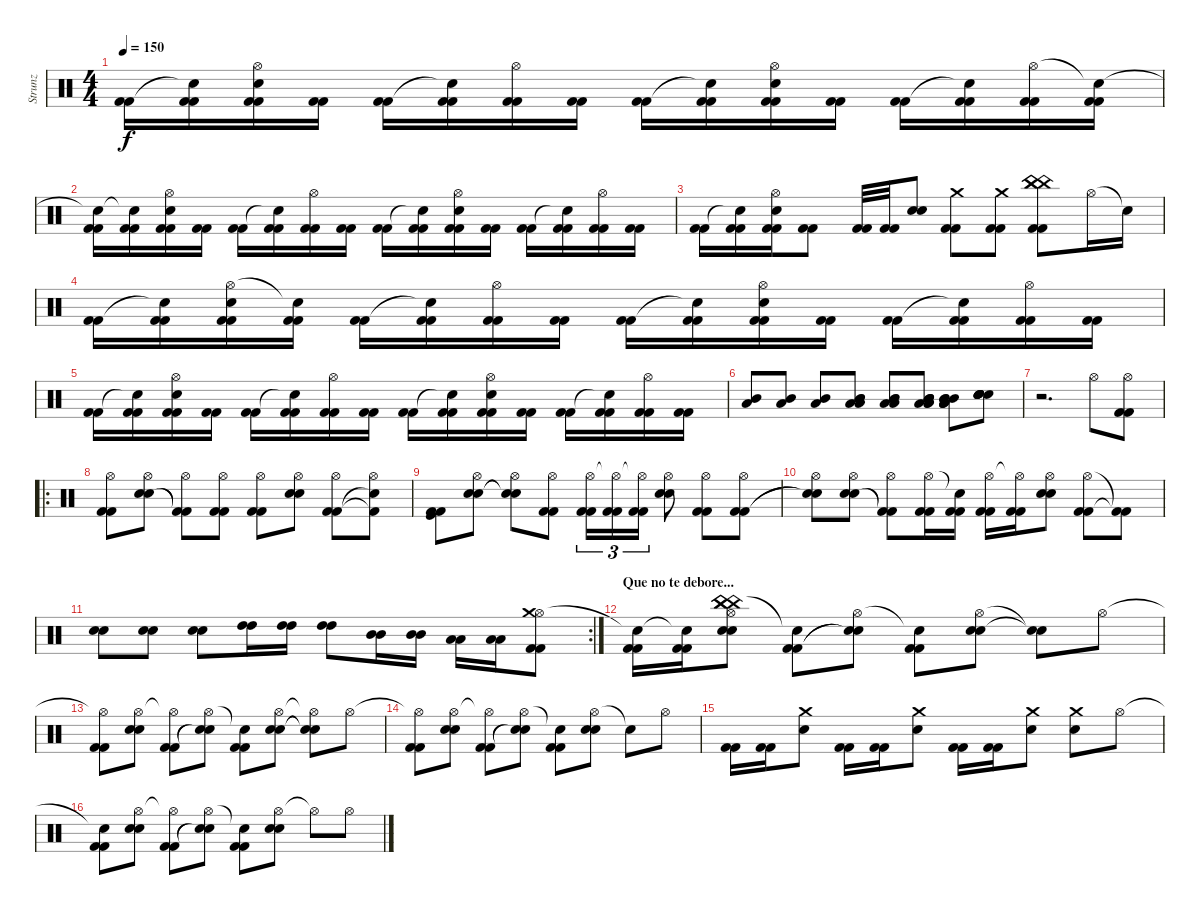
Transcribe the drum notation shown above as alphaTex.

\track ("Strunz" "Strunz") {instrument percussion}
\staff {score}
\articulation defaults
\ts (4 4)
\tempo 150
\clef neutral
\ks c
("Kick (hit) 2" "Kick (hit) 2").16{dy f} ("Snare (hit)"{t} "Kick (hit) 2" "Kick (hit) 2").16 ("Hi-Hat (open)" "Snare (hit) 2" "Kick (hit) 2" "Kick (hit) 2").16 ("Kick (hit) 2" "Kick (hit) 2").16 ("Kick (hit) 2" "Kick (hit) 2").16 ("Snare (hit)"{t} "Kick (hit) 2" "Kick (hit) 2").16 ("Hi-Hat (open)" "Kick (hit) 2" "Kick (hit) 2").16 ("Kick (hit) 2" "Kick (hit) 2").16 ("Kick (hit) 2" "Kick (hit) 2").16 ("Snare (hit)"{t} "Kick (hit) 2" "Kick (hit) 2").16 ("Hi-Hat (open)" "Snare (hit) 2" "Kick (hit) 2" "Kick (hit) 2").16 ("Kick (hit) 2" "Kick (hit) 2").16 ("Kick (hit) 2" "Kick (hit) 2").16 ("Snare (hit)"{t} "Kick (hit) 2" "Kick (hit) 2").16 ("Hi-Hat (open)" "Kick (hit) 2" "Kick (hit) 2").16 ("Snare (hit)"{t} "Kick (hit) 2" "Kick (hit) 2").16 |
("Snare (hit)"{t} "Kick (hit) 2" "Kick (hit) 2").16 ("Snare (hit)"{t} "Kick (hit) 2" "Kick (hit) 2").16 ("Hi-Hat (open)" "Snare (hit) 2" "Kick (hit) 2" "Kick (hit) 2").16 ("Kick (hit) 2" "Kick (hit) 2").16 ("Kick (hit) 2" "Kick (hit) 2").16 ("Snare (hit)"{t} "Kick (hit) 2" "Kick (hit) 2").16 ("Hi-Hat (open)" "Kick (hit) 2" "Kick (hit) 2").16 ("Kick (hit) 2" "Kick (hit) 2").16 ("Kick (hit) 2" "Kick (hit) 2").16 ("Snare (hit)"{t} "Kick (hit) 2" "Kick (hit) 2").16 ("Hi-Hat (open)" "Snare (hit) 2" "Kick (hit) 2" "Kick (hit) 2").16 ("Kick (hit) 2" "Kick (hit) 2").16 ("Kick (hit) 2" "Kick (hit) 2").16 ("Snare (hit)"{t} "Kick (hit) 2" "Kick (hit) 2").16 ("Hi-Hat (open)" "Kick (hit) 2" "Kick (hit) 2").16 ("Kick (hit) 2" "Kick (hit) 2").16 |
("Kick (hit) 2" "Kick (hit) 2").16 ("Snare (hit)"{t} "Kick (hit) 2" "Kick (hit) 2").16 ("Hi-Hat (open)" "Snare (hit) 2" "Kick (hit) 2" "Kick (hit) 2").16 ("Kick (hit) 2" "Kick (hit) 2").8 ("Kick (hit) 2" "Kick (hit) 2").32 ("Kick (hit) 2" "Kick (hit) 2").32 ("Snare (hit) 2" "Snare (hit) 2").8 ("Crash medium (hit)" "Kick (hit) 2" "Kick (hit) 2").8 ("Crash medium (hit)" "Kick (hit) 2" "Kick (hit) 2").8 ("China (hit)" "China (hit)" "China (hit)" "Kick (hit) 2" "Kick (hit) 2").8 "Hi-Hat (open)".16 "Snare (hit)"{t}.16 |
("Kick (hit) 2" "Kick (hit) 2").16 ("Snare (hit)"{t} "Kick (hit) 2" "Kick (hit) 2").16 ("Hi-Hat (open)" "Snare (hit) 2" "Kick (hit) 2" "Kick (hit) 2").16 ("Snare (hit)"{t} "Kick (hit) 2" "Kick (hit) 2").16 ("Kick (hit) 2" "Kick (hit) 2").16 ("Snare (hit)"{t} "Kick (hit) 2" "Kick (hit) 2").16 ("Hi-Hat (open)" "Kick (hit) 2" "Kick (hit) 2").16 ("Kick (hit) 2" "Kick (hit) 2").16 ("Kick (hit) 2" "Kick (hit) 2").16 ("Snare (hit)"{t} "Kick (hit) 2" "Kick (hit) 2").16 ("Hi-Hat (open)" "Snare (hit) 2" "Kick (hit) 2" "Kick (hit) 2").16 ("Kick (hit) 2" "Kick (hit) 2").16 ("Kick (hit) 2" "Kick (hit) 2").16 ("Snare (hit)"{t} "Kick (hit) 2" "Kick (hit) 2").16 ("Hi-Hat (open)" "Kick (hit) 2" "Kick (hit) 2").16 ("Kick (hit) 2" "Kick (hit) 2").16 |
("Kick (hit) 2" "Kick (hit) 2").16 ("Snare (hit)"{t} "Kick (hit) 2" "Kick (hit) 2").16 ("Hi-Hat (open)" "Snare (hit) 2" "Kick (hit) 2" "Kick (hit) 2").16 ("Kick (hit) 2" "Kick (hit) 2").16 ("Kick (hit) 2" "Kick (hit) 2").16 ("Snare (hit)"{t} "Kick (hit) 2" "Kick (hit) 2").16 ("Hi-Hat (open)" "Kick (hit) 2" "Kick (hit) 2").16 ("Kick (hit) 2" "Kick (hit) 2").16 ("Kick (hit) 2" "Kick (hit) 2").16 ("Snare (hit)"{t} "Kick (hit) 2" "Kick (hit) 2").16 ("Hi-Hat (open)" "Snare (hit) 2" "Kick (hit) 2" "Kick (hit) 2").16 ("Kick (hit) 2" "Kick (hit) 2").16 ("Kick (hit) 2" "Kick (hit) 2").16 ("Snare (hit)"{t} "Kick (hit) 2" "Kick (hit) 2").16 ("Hi-Hat (open)" "Kick (hit) 2" "Kick (hit) 2").16 ("Kick (hit) 2" "Kick (hit) 2").16 |
("Mid Tom (hit)" "Low Tom (hit)").8 ("Mid Tom (hit)" "Low Tom (hit)").8 ("Mid Tom (hit)" "Low Tom (hit)").8 ("Low Tom (hit)" "Low Tom (hit)" "Mid Tom (hit)" "Mid Tom (hit)").8 ("Low Tom (hit)" "Low Tom (hit)" "Mid Tom (hit)" "Mid Tom (hit)").8 ("Low Tom (hit)" "Low Tom (hit)" "Low Tom (hit)" "Mid Tom (hit)" "Mid Tom (hit)" "Mid Tom (hit)").8 ("Low Tom (hit)" "Low Tom (hit)" "Low Tom (hit)" "Mid Tom (hit)" "Mid Tom (hit)" "Mid Tom (hit)").8 ("Snare (hit) 2" "Snare (hit) 2" "Snare (hit) 2" "Snare (hit) 2" "Snare (hit) 2" "Snare (hit) 2").8 |
r.2{d} "Hi-Hat (open)".8 ("Hi-Hat (open)" "Kick (hit) 2" "Kick (hit) 2").8 |
\ro
("Hi-Hat (open)" "Kick (hit) 2" "Kick (hit) 2").8 ("Hi-Hat (open)" "Snare (hit) 2" "Snare (hit) 2").8 ("Hi-Hat (open)" "Kick (hit) 2"{t} "Kick (hit) 2"{t}).8 ("Hi-Hat (open)" "Kick (hit) 2" "Kick (hit) 2").8 ("Hi-Hat (open)" "Kick (hit) 2" "Kick (hit) 2").8 ("Hi-Hat (open)" "Snare (hit) 2" "Snare (hit) 2").8 ("Hi-Hat (open)" "Kick (hit) 2" "Kick (hit) 2").8 ("Hi-Hat (open)" "Kick (hit) 2"{t} "Snare (hit)"{t}).8 |
("Kick (hit)" "Kick (hit) 2" "Kick (hit) 2").8 ("Hi-Hat (open)" "Snare (hit) 2" "Snare (hit) 2").8 ("Hi-Hat (open)" "Snare (hit)"{t} "Snare (hit)"{t}).8 ("Hi-Hat (open)" "Kick (hit) 2" "Kick (hit) 2").8 ("Hi-Hat (open)" "Kick (hit) 2" "Kick (hit) 2").16{tu (3 2)} ("Hi-Hat (open)"{t} "Kick (hit) 2" "Kick (hit) 2").16{tu (3 2)} ("Hi-Hat (open)"{t} "Kick (hit) 2" "Kick (hit) 2").16{tu (3 2)} ("Hi-Hat (open)" "Snare (hit) 2" "Snare (hit) 2").8 ("Hi-Hat (open)" "Kick (hit) 2" "Kick (hit) 2").8 ("Hi-Hat (open)" "Kick (hit) 2" "Kick (hit) 2").8 |
("Hi-Hat (open)" "Snare (hit) 2"{t} "Snare (hit) 2"{t}).8 ("Hi-Hat (open)" "Snare (hit) 2" "Snare (hit) 2").8 ("Hi-Hat (open)" "Kick (hit) 2"{t} "Kick (hit) 2"{t}).8 ("Hi-Hat (open)" "Kick (hit) 2" "Kick (hit) 2").16 ("Snare (hit)"{t} "Kick (hit) 2" "Kick (hit) 2").16 ("Hi-Hat (open)" "Kick (hit) 2" "Kick (hit) 2").16 ("Hi-Hat (open)"{t} "Kick (hit) 2" "Kick (hit) 2").16 ("Hi-Hat (open)" "Snare (hit) 2" "Snare (hit) 2").8 ("Hi-Hat (open)" "Kick (hit) 2" "Kick (hit) 2").8 ("Kick (hit) 2"{t} "Kick (hit) 2"{t}).8 |
\rc 2
("Snare (hit) 2" "Snare (hit) 2").8 ("Snare (hit) 2" "Snare (hit) 2").8 ("Snare (hit) 2" "Snare (hit) 2").8 ("High Tom (hit)" "High Tom (hit)").16 ("High Tom (hit)" "High Tom (hit)").16 ("High Tom (hit)" "High Tom (hit)").8 ("Mid Tom (hit)" "Mid Tom (hit)").16 ("Mid Tom (hit)" "Mid Tom (hit)").16 ("Low Tom (hit)" "Low Tom (hit)").16 ("Low Tom (hit)" "Low Tom (hit)").16 ("Hi-Hat (open)" "Crash medium (hit)" "Kick (hit) 2" "Kick (hit) 2").8 |
\section ("" "Que no te debore...")
("Snare (hit)"{t} "Kick (hit) 2" "Kick (hit) 2").16 ("Snare (hit)"{t} "Kick (hit) 2" "Kick (hit) 2").16 ("China (hit)" "Hi-Hat (open)" "China (hit)" "Snare (hit) 2" "Snare (hit) 2" "China (hit)").8 ("Snare (hit)"{t} "Kick (hit) 2" "Kick (hit) 2").8 ("Hi-Hat (open)" "Snare (hit)"{t} "Snare (hit)"{t}).8 ("Snare (hit)"{t} "Kick (hit) 2" "Kick (hit) 2").8 ("Hi-Hat (open)" "Snare (hit) 2" "Snare (hit) 2").8 ("Snare (hit)"{t} "Snare (hit)"{t}).8 "Hi-Hat (open)".8 |
("Hi-Hat (open)"{t} "Kick (hit) 2" "Kick (hit) 2").8 ("Hi-Hat (open)" "Snare (hit) 2" "Snare (hit) 2").8 ("Hi-Hat (open)"{t} "Kick (hit) 2" "Kick (hit) 2").8 ("Hi-Hat (open)" "Snare (hit)"{t} "Snare (hit)"{t}).8 ("Snare (hit)"{t} "Kick (hit) 2" "Kick (hit) 2").8 ("Hi-Hat (open)" "Snare (hit) 2" "Snare (hit) 2").8 ("Hi-Hat (open)"{t} "Snare (hit)"{t} "Snare (hit)"{t}).8 "Hi-Hat (open)".8 |
("Hi-Hat (open)"{t} "Kick (hit) 2" "Kick (hit) 2").8 ("Hi-Hat (open)" "Snare (hit) 2" "Snare (hit) 2").8 ("Hi-Hat (open)"{t} "Kick (hit) 2" "Kick (hit) 2").8 ("Hi-Hat (open)" "Snare (hit)"{t} "Snare (hit)"{t}).8 ("Snare (hit)"{t} "Kick (hit) 2" "Kick (hit) 2").8 ("Hi-Hat (open)" "Snare (hit) 2" "Snare (hit) 2").8 "Snare (hit)"{t}.8 "Hi-Hat (open)".8 |
("Kick (hit) 2" "Kick (hit) 2").16 ("Kick (hit) 2" "Kick (hit) 2").16 ("Crash medium (hit)" "Snare (hit) 2").8 ("Kick (hit) 2" "Kick (hit) 2").16 ("Kick (hit) 2" "Kick (hit) 2").16 ("Crash medium (hit)" "Snare (hit) 2").8 ("Kick (hit) 2" "Kick (hit) 2").16 ("Kick (hit) 2" "Kick (hit) 2").16 ("Crash medium (hit)" "Snare (hit) 2").8 ("Crash medium (hit)" "Snare (hit) 2").8 "Hi-Hat (open)".8 |
("Snare (hit)"{t} "Kick (hit) 2" "Kick (hit) 2").8 ("Hi-Hat (open)" "Snare (hit) 2" "Snare (hit) 2").8 ("Hi-Hat (open)"{t} "Kick (hit) 2" "Kick (hit) 2").8 ("Hi-Hat (open)" "Snare (hit)"{t} "Snare (hit)"{t}).8 ("Snare (hit)"{t} "Kick (hit) 2" "Kick (hit) 2").8 ("Hi-Hat (open)" "Snare (hit) 2" "Snare (hit) 2").8 "Hi-Hat (open)"{t}.8 "Hi-Hat (open)".8
